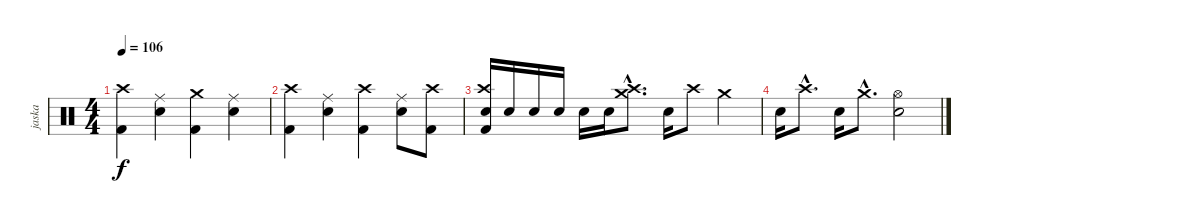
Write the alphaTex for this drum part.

\track ("jaska" "jaska") {instrument percussion}
\staff {score}
\articulation defaults
\ts (4 4)
\tempo 106
\clef neutral
\ks c
("Kick (hit) 2" "Crash high (hit)").4{dy f} ("Ride (middle)" "Snare (hit) 2").4 ("Kick (hit) 2" "Crash medium (hit)").4 ("Ride (middle)" "Snare (hit) 2").4 |
("Kick (hit) 2" "Crash high (hit)").4 ("Ride (middle)" "Snare (hit) 2").4 ("Kick (hit) 2" "Crash high (hit)").4 ("Ride (middle)" "Snare (hit) 2").8 ("Kick (hit) 2" "Crash high (hit)").8 |
("Kick (hit) 2" "Crash high (hit)" "Snare (hit) 2").16 "Snare (hit) 2".16 "Snare (hit) 2".16 "Snare (hit) 2".16 "Snare (hit) 2".16 "Snare (hit) 2".16 ("Crash high (hit)"{hac} "Crash medium (hit)"{hac}).8{d} "Snare (hit) 2".16 "Crash high (hit)".8 "Crash medium (hit)".4 |
"Snare (hit) 2".16 "Crash high (hit)"{hac}.8{d} "Snare (hit) 2".16 "Crash medium (hit)"{hac}.8{d} ("Hi-Hat (open)" "Snare (hit) 2").2
